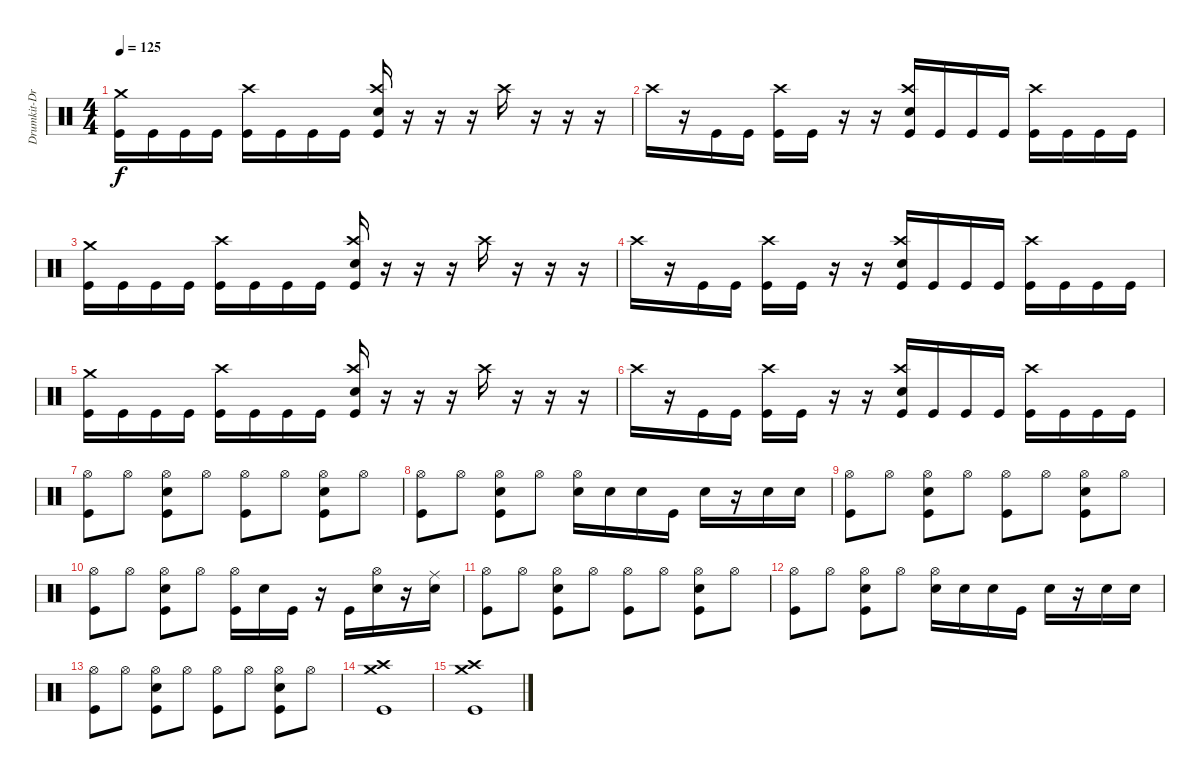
\track ("Drumkit-Drums" "Drumkit-Dr") {instrument percussion}
\staff {score}
\articulation defaults
\ts (4 4)
\tempo 125
\clef neutral
\ks c
("Kick (hit)" "Crash medium (hit)").16{dy f} "Kick (hit)".16 "Kick (hit)".16 "Kick (hit)".16 ("Kick (hit)" "Crash high (hit)").16 "Kick (hit)".16 "Kick (hit)".16 "Kick (hit)".16 ("Kick (hit)" "Crash high (hit)" "Snare (hit) 2").16 r.16 r.16 r.16 "Crash high (hit)".16 r.16 r.16 r.16 |
"Crash high (hit)".16 r.16 "Kick (hit)".16 "Kick (hit)".16 ("Kick (hit)" "Crash high (hit)").16 "Kick (hit)".16 r.16 r.16 ("Crash high (hit)" "Kick (hit)" "Snare (hit) 2").16 "Kick (hit)".16 "Kick (hit)".16 "Kick (hit)".16 ("Kick (hit)" "Crash high (hit)").16 "Kick (hit)".16 "Kick (hit)".16 "Kick (hit)".16 |
("Kick (hit)" "Crash medium (hit)").16 "Kick (hit)".16 "Kick (hit)".16 "Kick (hit)".16 ("Kick (hit)" "Crash high (hit)").16 "Kick (hit)".16 "Kick (hit)".16 "Kick (hit)".16 ("Kick (hit)" "Crash high (hit)" "Snare (hit) 2").16 r.16 r.16 r.16 "Crash high (hit)".16 r.16 r.16 r.16 |
"Crash high (hit)".16 r.16 "Kick (hit)".16 "Kick (hit)".16 ("Kick (hit)" "Crash high (hit)").16 "Kick (hit)".16 r.16 r.16 ("Crash high (hit)" "Kick (hit)" "Snare (hit) 2").16 "Kick (hit)".16 "Kick (hit)".16 "Kick (hit)".16 ("Kick (hit)" "Crash high (hit)").16 "Kick (hit)".16 "Kick (hit)".16 "Kick (hit)".16 |
("Kick (hit)" "Crash medium (hit)").16 "Kick (hit)".16 "Kick (hit)".16 "Kick (hit)".16 ("Kick (hit)" "Crash high (hit)").16 "Kick (hit)".16 "Kick (hit)".16 "Kick (hit)".16 ("Kick (hit)" "Crash high (hit)" "Snare (hit) 2").16 r.16 r.16 r.16 "Crash high (hit)".16 r.16 r.16 r.16 |
"Crash high (hit)".16 r.16 "Kick (hit)".16 "Kick (hit)".16 ("Kick (hit)" "Crash high (hit)").16 "Kick (hit)".16 r.16 r.16 ("Crash high (hit)" "Kick (hit)" "Snare (hit) 2").16 "Kick (hit)".16 "Kick (hit)".16 "Kick (hit)".16 ("Kick (hit)" "Crash high (hit)").16 "Kick (hit)".16 "Kick (hit)".16 "Kick (hit)".16 |
("Kick (hit)" "Hi-Hat (open)").8 "Hi-Hat (open)".8 ("Kick (hit)" "Snare (hit) 2" "Hi-Hat (open)").8 "Hi-Hat (open)".8 ("Kick (hit)" "Hi-Hat (open)").8 "Hi-Hat (open)".8 ("Kick (hit)" "Snare (hit) 2" "Hi-Hat (open)").8 "Hi-Hat (open)".8 |
("Kick (hit)" "Hi-Hat (open)").8 "Hi-Hat (open)".8 ("Kick (hit)" "Snare (hit) 2" "Hi-Hat (open)").8 "Hi-Hat (open)".8 ("Snare (hit) 2" "Hi-Hat (open)").16 "Snare (hit) 2".16 "Snare (hit) 2".16 "Kick (hit)".16 "Snare (hit) 2".16 r.16 "Snare (hit) 2".16 "Snare (hit) 2".16 |
("Kick (hit)" "Hi-Hat (open)").8 "Hi-Hat (open)".8 ("Kick (hit)" "Snare (hit) 2" "Hi-Hat (open)").8 "Hi-Hat (open)".8 ("Kick (hit)" "Hi-Hat (open)").8 "Hi-Hat (open)".8 ("Kick (hit)" "Snare (hit) 2" "Hi-Hat (open)").8 "Hi-Hat (open)".8 |
("Kick (hit)" "Hi-Hat (open)").8 "Hi-Hat (open)".8 ("Kick (hit)" "Snare (hit) 2" "Hi-Hat (open)").8 "Hi-Hat (open)".8 ("Kick (hit)" "Hi-Hat (open)").16 "Snare (hit) 2".16 "Kick (hit)".16 r.16 "Kick (hit)".16 ("Snare (hit) 2" "Hi-Hat (open)").16 r.16 ("Snare (hit) 2" "Ride (middle)").16 |
("Kick (hit)" "Hi-Hat (open)").8 "Hi-Hat (open)".8 ("Kick (hit)" "Snare (hit) 2" "Hi-Hat (open)").8 "Hi-Hat (open)".8 ("Kick (hit)" "Hi-Hat (open)").8 "Hi-Hat (open)".8 ("Kick (hit)" "Snare (hit) 2" "Hi-Hat (open)").8 "Hi-Hat (open)".8 |
("Kick (hit)" "Hi-Hat (open)").8 "Hi-Hat (open)".8 ("Kick (hit)" "Snare (hit) 2" "Hi-Hat (open)").8 "Hi-Hat (open)".8 ("Snare (hit) 2" "Hi-Hat (open)").16 "Snare (hit) 2".16 "Snare (hit) 2".16 "Kick (hit)".16 "Snare (hit) 2".16 r.16 "Snare (hit) 2".16 "Snare (hit) 2".16 |
("Kick (hit)" "Hi-Hat (open)").8 "Hi-Hat (open)".8 ("Kick (hit)" "Snare (hit) 2" "Hi-Hat (open)").8 "Hi-Hat (open)".8 ("Kick (hit)" "Hi-Hat (open)").8 "Hi-Hat (open)".8 ("Kick (hit)" "Snare (hit) 2" "Hi-Hat (open)").8 "Hi-Hat (open)".8 |
("Kick (hit)" "Crash high (hit)" "Crash medium (hit)").1 |
("Kick (hit)" "Crash high (hit)" "Crash medium (hit)").1
